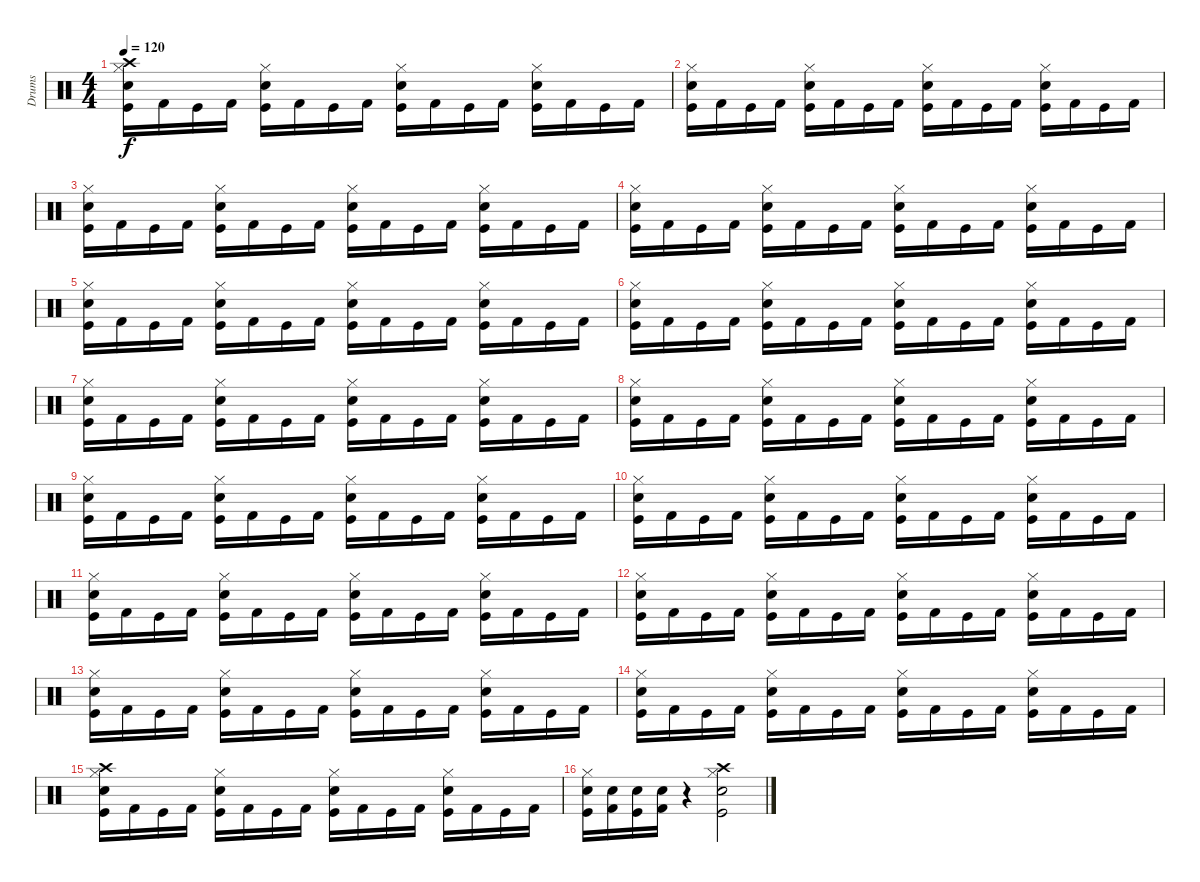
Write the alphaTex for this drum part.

\track ("Drums" "Drums") {instrument percussion}
\staff {score}
\articulation defaults
\ts (4 4)
\tempo 120
\clef neutral
\ks c
("Hi-Hat (closed)" "Crash high (hit)" "Snare (hit) 2" "Kick (hit)").16{dy f} "Kick (hit) 2".16 "Kick (hit)".16 "Kick (hit) 2".16 ("Hi-Hat (closed)" "Snare (hit) 2" "Kick (hit)").16 "Kick (hit) 2".16 "Kick (hit)".16 "Kick (hit) 2".16 ("Hi-Hat (closed)" "Snare (hit) 2" "Kick (hit)").16 "Kick (hit) 2".16 "Kick (hit)".16 "Kick (hit) 2".16 ("Hi-Hat (closed)" "Snare (hit) 2" "Kick (hit)").16 "Kick (hit) 2".16 "Kick (hit)".16 "Kick (hit) 2".16 |
("Hi-Hat (closed)" "Snare (hit) 2" "Kick (hit)").16 "Kick (hit) 2".16 "Kick (hit)".16 "Kick (hit) 2".16 ("Hi-Hat (closed)" "Snare (hit) 2" "Kick (hit)").16 "Kick (hit) 2".16 "Kick (hit)".16 "Kick (hit) 2".16 ("Hi-Hat (closed)" "Snare (hit) 2" "Kick (hit)").16 "Kick (hit) 2".16 "Kick (hit)".16 "Kick (hit) 2".16 ("Hi-Hat (closed)" "Snare (hit) 2" "Kick (hit)").16 "Kick (hit) 2".16 "Kick (hit)".16 "Kick (hit) 2".16 |
("Hi-Hat (closed)" "Snare (hit) 2" "Kick (hit)").16 "Kick (hit) 2".16 "Kick (hit)".16 "Kick (hit) 2".16 ("Hi-Hat (closed)" "Snare (hit) 2" "Kick (hit)").16 "Kick (hit) 2".16 "Kick (hit)".16 "Kick (hit) 2".16 ("Hi-Hat (closed)" "Snare (hit) 2" "Kick (hit)").16 "Kick (hit) 2".16 "Kick (hit)".16 "Kick (hit) 2".16 ("Hi-Hat (closed)" "Snare (hit) 2" "Kick (hit)").16 "Kick (hit) 2".16 "Kick (hit)".16 "Kick (hit) 2".16 |
("Hi-Hat (closed)" "Snare (hit) 2" "Kick (hit)").16 "Kick (hit) 2".16 "Kick (hit)".16 "Kick (hit) 2".16 ("Hi-Hat (closed)" "Snare (hit) 2" "Kick (hit)").16 "Kick (hit) 2".16 "Kick (hit)".16 "Kick (hit) 2".16 ("Hi-Hat (closed)" "Snare (hit) 2" "Kick (hit)").16 "Kick (hit) 2".16 "Kick (hit)".16 "Kick (hit) 2".16 ("Hi-Hat (closed)" "Snare (hit) 2" "Kick (hit)").16 "Kick (hit) 2".16 "Kick (hit)".16 "Kick (hit) 2".16 |
("Hi-Hat (closed)" "Snare (hit) 2" "Kick (hit)").16 "Kick (hit) 2".16 "Kick (hit)".16 "Kick (hit) 2".16 ("Hi-Hat (closed)" "Snare (hit) 2" "Kick (hit)").16 "Kick (hit) 2".16 "Kick (hit)".16 "Kick (hit) 2".16 ("Hi-Hat (closed)" "Snare (hit) 2" "Kick (hit)").16 "Kick (hit) 2".16 "Kick (hit)".16 "Kick (hit) 2".16 ("Hi-Hat (closed)" "Snare (hit) 2" "Kick (hit)").16 "Kick (hit) 2".16 "Kick (hit)".16 "Kick (hit) 2".16 |
("Hi-Hat (closed)" "Snare (hit) 2" "Kick (hit)").16 "Kick (hit) 2".16 "Kick (hit)".16 "Kick (hit) 2".16 ("Hi-Hat (closed)" "Snare (hit) 2" "Kick (hit)").16 "Kick (hit) 2".16 "Kick (hit)".16 "Kick (hit) 2".16 ("Hi-Hat (closed)" "Snare (hit) 2" "Kick (hit)").16 "Kick (hit) 2".16 "Kick (hit)".16 "Kick (hit) 2".16 ("Hi-Hat (closed)" "Snare (hit) 2" "Kick (hit)").16 "Kick (hit) 2".16 "Kick (hit)".16 "Kick (hit) 2".16 |
("Hi-Hat (closed)" "Snare (hit) 2" "Kick (hit)").16 "Kick (hit) 2".16 "Kick (hit)".16 "Kick (hit) 2".16 ("Hi-Hat (closed)" "Snare (hit) 2" "Kick (hit)").16 "Kick (hit) 2".16 "Kick (hit)".16 "Kick (hit) 2".16 ("Hi-Hat (closed)" "Snare (hit) 2" "Kick (hit)").16 "Kick (hit) 2".16 "Kick (hit)".16 "Kick (hit) 2".16 ("Hi-Hat (closed)" "Snare (hit) 2" "Kick (hit)").16 "Kick (hit) 2".16 "Kick (hit)".16 "Kick (hit) 2".16 |
("Hi-Hat (closed)" "Snare (hit) 2" "Kick (hit)").16 "Kick (hit) 2".16 "Kick (hit)".16 "Kick (hit) 2".16 ("Hi-Hat (closed)" "Snare (hit) 2" "Kick (hit)").16 "Kick (hit) 2".16 "Kick (hit)".16 "Kick (hit) 2".16 ("Hi-Hat (closed)" "Snare (hit) 2" "Kick (hit)").16 "Kick (hit) 2".16 "Kick (hit)".16 "Kick (hit) 2".16 ("Hi-Hat (closed)" "Snare (hit) 2" "Kick (hit)").16 "Kick (hit) 2".16 "Kick (hit)".16 "Kick (hit) 2".16 |
("Hi-Hat (closed)" "Snare (hit) 2" "Kick (hit)").16 "Kick (hit) 2".16 "Kick (hit)".16 "Kick (hit) 2".16 ("Hi-Hat (closed)" "Snare (hit) 2" "Kick (hit)").16 "Kick (hit) 2".16 "Kick (hit)".16 "Kick (hit) 2".16 ("Hi-Hat (closed)" "Snare (hit) 2" "Kick (hit)").16 "Kick (hit) 2".16 "Kick (hit)".16 "Kick (hit) 2".16 ("Hi-Hat (closed)" "Snare (hit) 2" "Kick (hit)").16 "Kick (hit) 2".16 "Kick (hit)".16 "Kick (hit) 2".16 |
("Hi-Hat (closed)" "Snare (hit) 2" "Kick (hit)").16 "Kick (hit) 2".16 "Kick (hit)".16 "Kick (hit) 2".16 ("Hi-Hat (closed)" "Snare (hit) 2" "Kick (hit)").16 "Kick (hit) 2".16 "Kick (hit)".16 "Kick (hit) 2".16 ("Hi-Hat (closed)" "Snare (hit) 2" "Kick (hit)").16 "Kick (hit) 2".16 "Kick (hit)".16 "Kick (hit) 2".16 ("Hi-Hat (closed)" "Snare (hit) 2" "Kick (hit)").16 "Kick (hit) 2".16 "Kick (hit)".16 "Kick (hit) 2".16 |
("Hi-Hat (closed)" "Snare (hit) 2" "Kick (hit)").16 "Kick (hit) 2".16 "Kick (hit)".16 "Kick (hit) 2".16 ("Hi-Hat (closed)" "Snare (hit) 2" "Kick (hit)").16 "Kick (hit) 2".16 "Kick (hit)".16 "Kick (hit) 2".16 ("Hi-Hat (closed)" "Snare (hit) 2" "Kick (hit)").16 "Kick (hit) 2".16 "Kick (hit)".16 "Kick (hit) 2".16 ("Hi-Hat (closed)" "Snare (hit) 2" "Kick (hit)").16 "Kick (hit) 2".16 "Kick (hit)".16 "Kick (hit) 2".16 |
("Hi-Hat (closed)" "Snare (hit) 2" "Kick (hit)").16 "Kick (hit) 2".16 "Kick (hit)".16 "Kick (hit) 2".16 ("Hi-Hat (closed)" "Snare (hit) 2" "Kick (hit)").16 "Kick (hit) 2".16 "Kick (hit)".16 "Kick (hit) 2".16 ("Hi-Hat (closed)" "Snare (hit) 2" "Kick (hit)").16 "Kick (hit) 2".16 "Kick (hit)".16 "Kick (hit) 2".16 ("Hi-Hat (closed)" "Snare (hit) 2" "Kick (hit)").16 "Kick (hit) 2".16 "Kick (hit)".16 "Kick (hit) 2".16 |
("Hi-Hat (closed)" "Snare (hit) 2" "Kick (hit)").16 "Kick (hit) 2".16 "Kick (hit)".16 "Kick (hit) 2".16 ("Hi-Hat (closed)" "Snare (hit) 2" "Kick (hit)").16 "Kick (hit) 2".16 "Kick (hit)".16 "Kick (hit) 2".16 ("Hi-Hat (closed)" "Snare (hit) 2" "Kick (hit)").16 "Kick (hit) 2".16 "Kick (hit)".16 "Kick (hit) 2".16 ("Hi-Hat (closed)" "Snare (hit) 2" "Kick (hit)").16 "Kick (hit) 2".16 "Kick (hit)".16 "Kick (hit) 2".16 |
("Hi-Hat (closed)" "Snare (hit) 2" "Kick (hit)").16 "Kick (hit) 2".16 "Kick (hit)".16 "Kick (hit) 2".16 ("Hi-Hat (closed)" "Snare (hit) 2" "Kick (hit)").16 "Kick (hit) 2".16 "Kick (hit)".16 "Kick (hit) 2".16 ("Hi-Hat (closed)" "Snare (hit) 2" "Kick (hit)").16 "Kick (hit) 2".16 "Kick (hit)".16 "Kick (hit) 2".16 ("Hi-Hat (closed)" "Snare (hit) 2" "Kick (hit)").16 "Kick (hit) 2".16 "Kick (hit)".16 "Kick (hit) 2".16 |
("Hi-Hat (closed)" "Crash high (hit)" "Snare (hit) 2" "Kick (hit)").16 "Kick (hit) 2".16 "Kick (hit)".16 "Kick (hit) 2".16 ("Hi-Hat (closed)" "Snare (hit) 2" "Kick (hit)").16 "Kick (hit) 2".16 "Kick (hit)".16 "Kick (hit) 2".16 ("Hi-Hat (closed)" "Snare (hit) 2" "Kick (hit)").16 "Kick (hit) 2".16 "Kick (hit)".16 "Kick (hit) 2".16 ("Hi-Hat (closed)" "Snare (hit) 2" "Kick (hit)").16 "Kick (hit) 2".16 "Kick (hit)".16 "Kick (hit) 2".16 |
("Hi-Hat (closed)" "Snare (hit) 2" "Kick (hit)").16 ("Snare (hit) 2" "Kick (hit) 2").16 ("Snare (hit) 2" "Kick (hit)").16 ("Snare (hit) 2" "Kick (hit) 2").16 r.4 ("Hi-Hat (closed)" "Crash high (hit)" "Snare (hit) 2" "Kick (hit)").2
